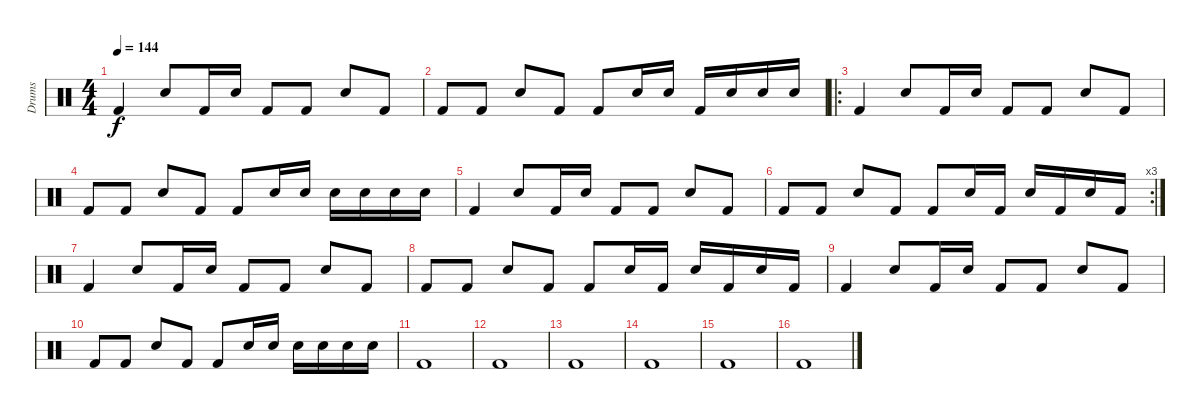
\track ("Drums" "Drums") {instrument percussion}
\staff {score}
\articulation defaults
\ts (4 4)
\tempo 144
\clef neutral
\ks c "Kick (hit) 2".4{dy f} "Electric Snare (hit)".8 "Kick (hit) 2".16 "Electric Snare (hit)".16 "Kick (hit) 2".8 "Kick (hit) 2".8 "Electric Snare (hit)".8 "Kick (hit) 2".8
|
"Kick (hit) 2".8 "Kick (hit) 2".8 "Electric Snare (hit)".8 "Kick (hit) 2".8 "Kick (hit) 2".8 "Electric Snare (hit)".16 "Electric Snare (hit)".16 "Kick (hit) 2".16 "Electric Snare (hit)".16 "Electric Snare (hit)".16 "Electric Snare (hit)".16 |
\ro "Kick (hit) 2".4 "Electric Snare (hit)".8 "Kick (hit) 2".16 "Electric Snare (hit)".16 "Kick (hit) 2".8 "Kick (hit) 2".8 "Electric Snare (hit)".8 "Kick (hit) 2".8
|
"Kick (hit) 2".8 "Kick (hit) 2".8 "Electric Snare (hit)".8 "Kick (hit) 2".8 "Kick (hit) 2".8 "Electric Snare (hit)".16 "Electric Snare (hit)".16 "Electric Snare (hit)".16 "Electric Snare (hit)".16 "Electric Snare (hit)".16 "Electric Snare (hit)".16 |
"Kick (hit) 2".4 "Electric Snare (hit)".8 "Kick (hit) 2".16 "Electric Snare (hit)".16 "Kick (hit) 2".8 "Kick (hit) 2".8 "Electric Snare (hit)".8 "Kick (hit) 2".8 |
\rc 3 "Kick (hit) 2".8 "Kick (hit) 2".8 "Electric Snare (hit)".8 "Kick (hit) 2".8 "Kick (hit) 2".8 "Electric Snare (hit)".16 "Kick (hit) 2".16 "Electric Snare (hit)".16 "Kick (hit) 2".16 "Electric Snare (hit)".16 "Kick (hit) 2".16
|
"Kick (hit) 2".4 "Electric Snare (hit)".8 "Kick (hit) 2".16 "Electric Snare (hit)".16 "Kick (hit) 2".8 "Kick (hit) 2".8 "Electric Snare (hit)".8 "Kick (hit) 2".8 |
"Kick (hit) 2".8 "Kick (hit) 2".8 "Electric Snare (hit)".8 "Kick (hit) 2".8 "Kick (hit) 2".8 "Electric Snare (hit)".16 "Kick (hit) 2".16 "Electric Snare (hit)".16 "Kick (hit) 2".16 "Electric Snare (hit)".16 "Kick (hit) 2".16 |
"Kick (hit) 2".4 "Electric Snare (hit)".8 "Kick (hit) 2".16 "Electric Snare (hit)".16 "Kick (hit) 2".8 "Kick (hit) 2".8 "Electric Snare (hit)".8 "Kick (hit) 2".8 |
"Kick (hit) 2".8 "Kick (hit) 2".8 "Electric Snare (hit)".8 "Kick (hit) 2".8 "Kick (hit) 2".8 "Electric Snare (hit)".16 "Electric Snare (hit)".16 "Electric Snare (hit)".16 "Electric Snare (hit)".16 "Electric Snare (hit)".16 "Electric Snare (hit)".16 |
"Kick (hit) 2".1 |
"Kick (hit) 2".1 |
"Kick (hit) 2".1 |
"Kick (hit) 2".1 |
"Kick (hit) 2".1 |
"Kick (hit) 2".1
